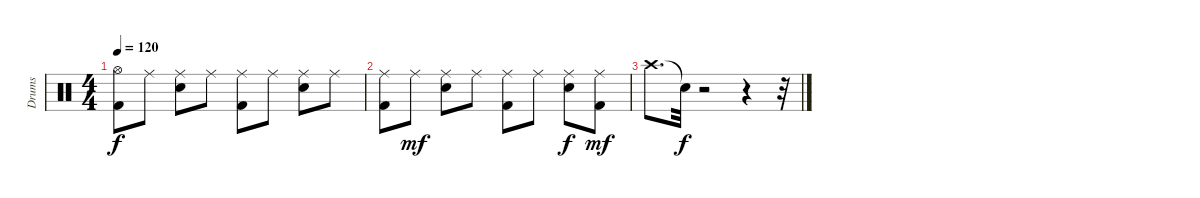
\track ("Drums" "Drums") {instrument percussion}
\staff {score}
\articulation defaults
\ts (4 4)
\tempo 120
\clef neutral
\ks c
("Hi-Hat (open)" "Kick (hit) 2").8{dy f} "Ride (middle)".8 ("Ride (middle)" "Snare (hit) 2").8 "Ride (middle)".8 ("Ride (middle)" "Kick (hit) 2").8 "Ride (middle)".8 ("Ride (middle)" "Snare (hit) 2").8 "Ride (middle)".8 |
("Ride (middle)" "Kick (hit) 2").8 "Ride (middle)".8{dy mf} ("Ride (middle)" "Snare (hit) 2").8 "Ride (middle)".8 ("Ride (middle)" "Kick (hit) 2").8 "Ride (middle)".8 ("Ride (middle)" "Snare (hit) 2").8{dy f} ("Ride (middle)" "Kick (hit) 2").8{dy mf} |
"Crash high (hit)".8{d} "Snare (hit)"{t}.32{dy f} r.2 r.4 r.32
